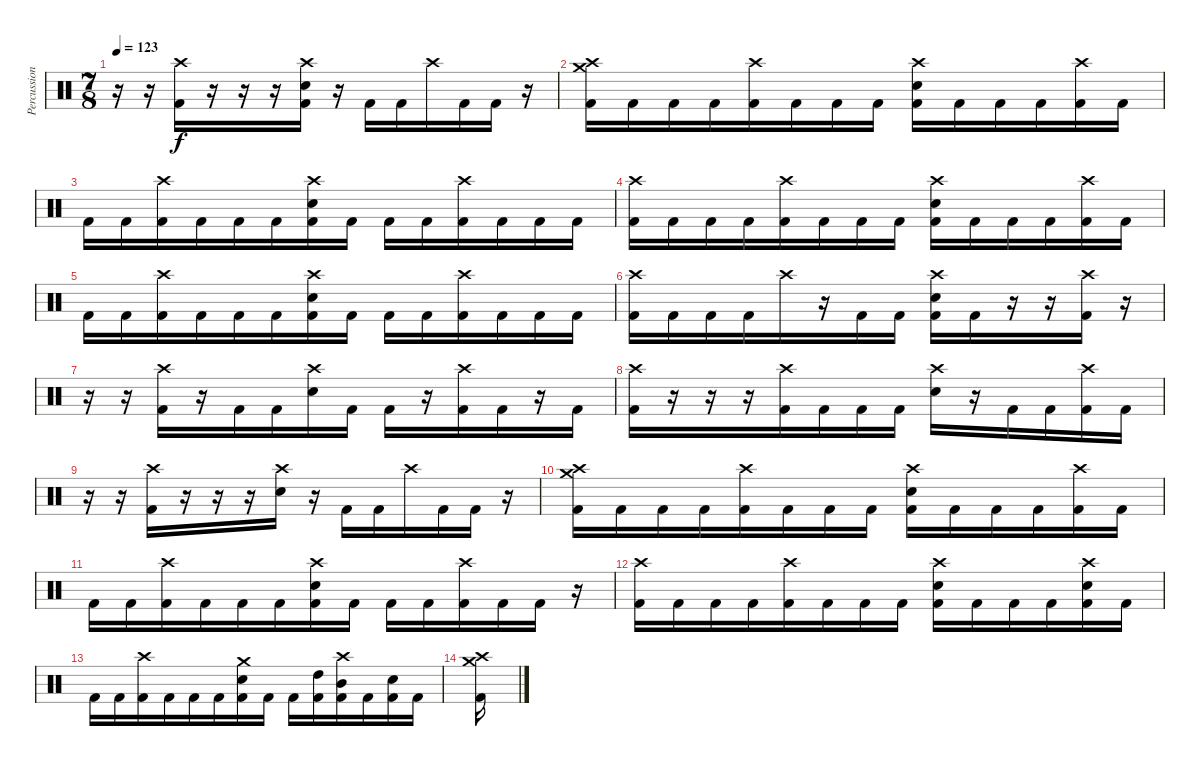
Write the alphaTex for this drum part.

\track ("Percussion" "Percussion") {instrument percussion}
\staff {score}
\articulation defaults
\ts (7 8)
\tempo 123
\clef neutral
\ks c
r.16{dy f} r.16 ("Crash high (hit)" "Kick (hit) 2").16 r.16 r.16 r.16 ("Crash high (hit)" "Electric Snare (hit)" "Kick (hit) 2").16 r.16 "Kick (hit) 2".16 "Kick (hit) 2".16 "Crash high (hit)".16 "Kick (hit) 2".16 "Kick (hit) 2".16 r.16 |
("Crash high (hit)" "Crash medium (hit)" "Kick (hit) 2").16 "Kick (hit) 2".16 "Kick (hit) 2".16 "Kick (hit) 2".16 ("Crash high (hit)" "Kick (hit) 2").16 "Kick (hit) 2".16 "Kick (hit) 2".16 "Kick (hit) 2".16 ("Crash high (hit)" "Electric Snare (hit)" "Kick (hit) 2").16 "Kick (hit) 2".16 "Kick (hit) 2".16 "Kick (hit) 2".16 ("Crash high (hit)" "Kick (hit) 2").16 "Kick (hit) 2".16 |
"Kick (hit) 2".16 "Kick (hit) 2".16 ("Crash high (hit)" "Kick (hit) 2").16 "Kick (hit) 2".16 "Kick (hit) 2".16 "Kick (hit) 2".16 ("Crash high (hit)" "Electric Snare (hit)" "Kick (hit) 2").16 "Kick (hit) 2".16 "Kick (hit) 2".16 "Kick (hit) 2".16 ("Crash high (hit)" "Kick (hit) 2").16 "Kick (hit) 2".16 "Kick (hit) 2".16 "Kick (hit) 2".16 |
("Crash high (hit)" "Kick (hit) 2").16 "Kick (hit) 2".16 "Kick (hit) 2".16 "Kick (hit) 2".16 ("Crash high (hit)" "Kick (hit) 2").16 "Kick (hit) 2".16 "Kick (hit) 2".16 "Kick (hit) 2".16 ("Crash high (hit)" "Electric Snare (hit)" "Kick (hit) 2").16 "Kick (hit) 2".16 "Kick (hit) 2".16 "Kick (hit) 2".16 ("Crash high (hit)" "Kick (hit) 2").16 "Kick (hit) 2".16 |
"Kick (hit) 2".16 "Kick (hit) 2".16 ("Crash high (hit)" "Kick (hit) 2").16 "Kick (hit) 2".16 "Kick (hit) 2".16 "Kick (hit) 2".16 ("Crash high (hit)" "Electric Snare (hit)" "Kick (hit) 2").16 "Kick (hit) 2".16 "Kick (hit) 2".16 "Kick (hit) 2".16 ("Crash high (hit)" "Kick (hit) 2").16 "Kick (hit) 2".16 "Kick (hit) 2".16 "Kick (hit) 2".16 |
("Crash high (hit)" "Kick (hit) 2").16 "Kick (hit) 2".16 "Kick (hit) 2".16 "Kick (hit) 2".16 "Crash high (hit)".16 r.16 "Kick (hit) 2".16 "Kick (hit) 2".16 ("Crash high (hit)" "Electric Snare (hit)" "Kick (hit) 2").16 "Kick (hit) 2".16 r.16 r.16 ("Crash high (hit)" "Kick (hit) 2").16 r.16 |
r.16 r.16 ("Crash high (hit)" "Kick (hit) 2").16 r.16 "Kick (hit) 2".16 "Kick (hit) 2".16 ("Crash high (hit)" "Electric Snare (hit)").16 "Kick (hit) 2".16 "Kick (hit) 2".16 r.16 ("Crash high (hit)" "Kick (hit) 2").16 "Kick (hit) 2".16 r.16 "Kick (hit) 2".16 |
("Crash high (hit)" "Kick (hit) 2").16 r.16 r.16 r.16 ("Crash high (hit)" "Kick (hit) 2").16 "Kick (hit) 2".16 "Kick (hit) 2".16 "Kick (hit) 2".16 ("Crash high (hit)" "Electric Snare (hit)").16 r.16 "Kick (hit) 2".16 "Kick (hit) 2".16 ("Crash high (hit)" "Kick (hit) 2").16 "Kick (hit) 2".16 |
r.16 r.16 ("Crash high (hit)" "Kick (hit) 2").16 r.16 r.16 r.16 ("Crash high (hit)" "Electric Snare (hit)").16 r.16 "Kick (hit) 2".16 "Kick (hit) 2".16 "Crash high (hit)".16 "Kick (hit) 2".16 "Kick (hit) 2".16 r.16 |
("Crash high (hit)" "Crash medium (hit)" "Kick (hit) 2").16 "Kick (hit) 2".16 "Kick (hit) 2".16 "Kick (hit) 2".16 ("Crash high (hit)" "Kick (hit) 2").16 "Kick (hit) 2".16 "Kick (hit) 2".16 "Kick (hit) 2".16 ("Crash high (hit)" "Electric Snare (hit)" "Kick (hit) 2").16 "Kick (hit) 2".16 "Kick (hit) 2".16 "Kick (hit) 2".16 ("Crash high (hit)" "Kick (hit) 2").16 "Kick (hit) 2".16 |
"Kick (hit) 2".16 "Kick (hit) 2".16 ("Crash high (hit)" "Kick (hit) 2").16 "Kick (hit) 2".16 "Kick (hit) 2".16 "Kick (hit) 2".16 ("Crash high (hit)" "Electric Snare (hit)" "Kick (hit) 2").16 "Kick (hit) 2".16 "Kick (hit) 2".16 "Kick (hit) 2".16 ("Crash high (hit)" "Kick (hit) 2").16 "Kick (hit) 2".16 "Kick (hit) 2".16 r.16 |
("Crash high (hit)" "Kick (hit) 2").16 "Kick (hit) 2".16 "Kick (hit) 2".16 "Kick (hit) 2".16 ("Crash high (hit)" "Kick (hit) 2").16 "Kick (hit) 2".16 "Kick (hit) 2".16 "Kick (hit) 2".16 ("Crash high (hit)" "Electric Snare (hit)" "Kick (hit) 2").16 "Kick (hit) 2".16 "Kick (hit) 2".16 "Kick (hit) 2".16 ("Crash high (hit)" "Electric Snare (hit)" "Kick (hit) 2").16 "Kick (hit) 2".16 |
"Kick (hit) 2".16 "Kick (hit) 2".16 ("Crash high (hit)" "Kick (hit) 2").16 "Kick (hit) 2".16 "Kick (hit) 2".16 "Kick (hit) 2".16 ("Crash medium (hit)" "Electric Snare (hit)" "Kick (hit) 2").16 "Kick (hit) 2".16 "Kick (hit) 2".16 ("High Tom (hit)" "Kick (hit) 2").16 ("Crash high (hit)" "Mid Tom (hit)" "Kick (hit) 2").16 "Kick (hit) 2".16 ("Electric Snare (hit)" "Kick (hit) 2").16 "Kick (hit) 2".16 |
("Crash high (hit)" "Crash medium (hit)" "Kick (hit) 2").16
